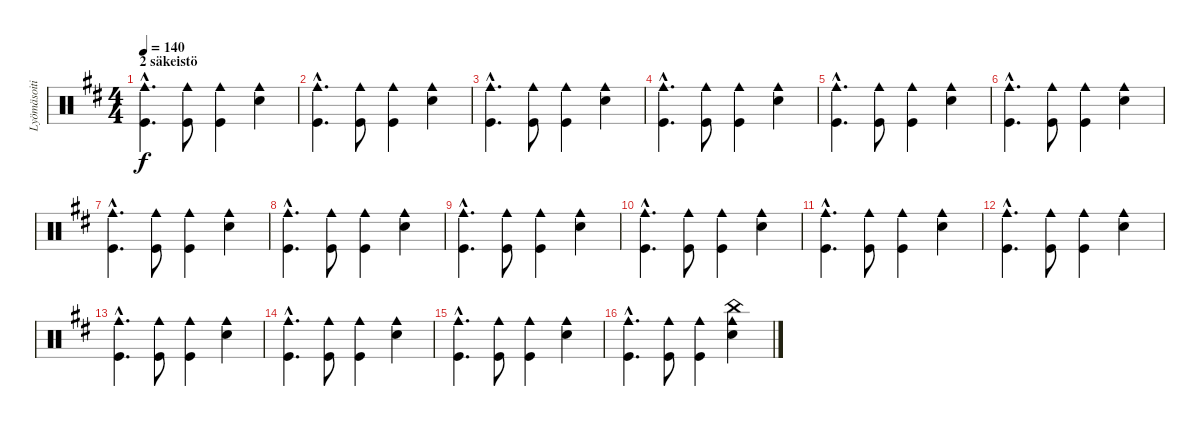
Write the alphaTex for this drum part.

\track ("Lyömäsoitin" "Lyömäsoiti") {instrument percussion}
\staff {score}
\articulation defaults
\ts (4 4)
\section ("" "2 säkeistö")
\tempo 140
\clef neutral
\ks d
("Cowbell medium (hit)"{hac} "Kick (hit)"{hac}).4{d dy f} ("Cowbell medium (hit)" "Kick (hit)").8 ("Cowbell medium (hit)" "Kick (hit)").4 ("Cowbell medium (hit)" "Snare (hit) 2").4 |
("Cowbell medium (hit)"{hac} "Kick (hit)"{hac}).4{d} ("Cowbell medium (hit)" "Kick (hit)").8 ("Cowbell medium (hit)" "Kick (hit)").4 ("Cowbell medium (hit)" "Snare (hit) 2").4 |
("Cowbell medium (hit)"{hac} "Kick (hit)"{hac}).4{d} ("Cowbell medium (hit)" "Kick (hit)").8 ("Cowbell medium (hit)" "Kick (hit)").4 ("Cowbell medium (hit)" "Snare (hit) 2").4 |
("Cowbell medium (hit)"{hac} "Kick (hit)"{hac}).4{d} ("Cowbell medium (hit)" "Kick (hit)").8 ("Cowbell medium (hit)" "Kick (hit)").4 ("Cowbell medium (hit)" "Snare (hit) 2").4 |
("Cowbell medium (hit)"{hac} "Kick (hit)"{hac}).4{d} ("Cowbell medium (hit)" "Kick (hit)").8 ("Cowbell medium (hit)" "Kick (hit)").4 ("Cowbell medium (hit)" "Snare (hit) 2").4 |
("Cowbell medium (hit)"{hac} "Kick (hit)"{hac}).4{d} ("Cowbell medium (hit)" "Kick (hit)").8 ("Cowbell medium (hit)" "Kick (hit)").4 ("Cowbell medium (hit)" "Snare (hit) 2").4 |
("Cowbell medium (hit)"{hac} "Kick (hit)"{hac}).4{d} ("Cowbell medium (hit)" "Kick (hit)").8 ("Cowbell medium (hit)" "Kick (hit)").4 ("Cowbell medium (hit)" "Snare (hit) 2").4 |
("Cowbell medium (hit)"{hac} "Kick (hit)"{hac}).4{d} ("Cowbell medium (hit)" "Kick (hit)").8 ("Cowbell medium (hit)" "Kick (hit)").4 ("Cowbell medium (hit)" "Snare (hit) 2").4 |
("Cowbell medium (hit)"{hac} "Kick (hit)"{hac}).4{d} ("Cowbell medium (hit)" "Kick (hit)").8 ("Cowbell medium (hit)" "Kick (hit)").4 ("Cowbell medium (hit)" "Snare (hit) 2").4 |
("Cowbell medium (hit)"{hac} "Kick (hit)"{hac}).4{d} ("Cowbell medium (hit)" "Kick (hit)").8 ("Cowbell medium (hit)" "Kick (hit)").4 ("Cowbell medium (hit)" "Snare (hit) 2").4 |
("Cowbell medium (hit)"{hac} "Kick (hit)"{hac}).4{d} ("Cowbell medium (hit)" "Kick (hit)").8 ("Cowbell medium (hit)" "Kick (hit)").4 ("Cowbell medium (hit)" "Snare (hit) 2").4 |
("Cowbell medium (hit)"{hac} "Kick (hit)"{hac}).4{d} ("Cowbell medium (hit)" "Kick (hit)").8 ("Cowbell medium (hit)" "Kick (hit)").4 ("Cowbell medium (hit)" "Snare (hit) 2").4 |
("Cowbell medium (hit)"{hac} "Kick (hit)"{hac}).4{d} ("Cowbell medium (hit)" "Kick (hit)").8 ("Cowbell medium (hit)" "Kick (hit)").4 ("Cowbell medium (hit)" "Snare (hit) 2").4 |
("Cowbell medium (hit)"{hac} "Kick (hit)"{hac}).4{d} ("Cowbell medium (hit)" "Kick (hit)").8 ("Cowbell medium (hit)" "Kick (hit)").4 ("Cowbell medium (hit)" "Snare (hit) 2").4 |
("Cowbell medium (hit)"{hac} "Kick (hit)"{hac}).4{d} ("Cowbell medium (hit)" "Kick (hit)").8 ("Cowbell medium (hit)" "Kick (hit)").4 ("Cowbell medium (hit)" "Snare (hit) 2").4 |
("Cowbell medium (hit)"{hac} "Kick (hit)"{hac}).4{d} ("Cowbell medium (hit)" "Kick (hit)").8 ("Cowbell medium (hit)" "Kick (hit)").4 ("Cowbell medium (hit)" "China (hit)" "Snare (hit) 2").4
